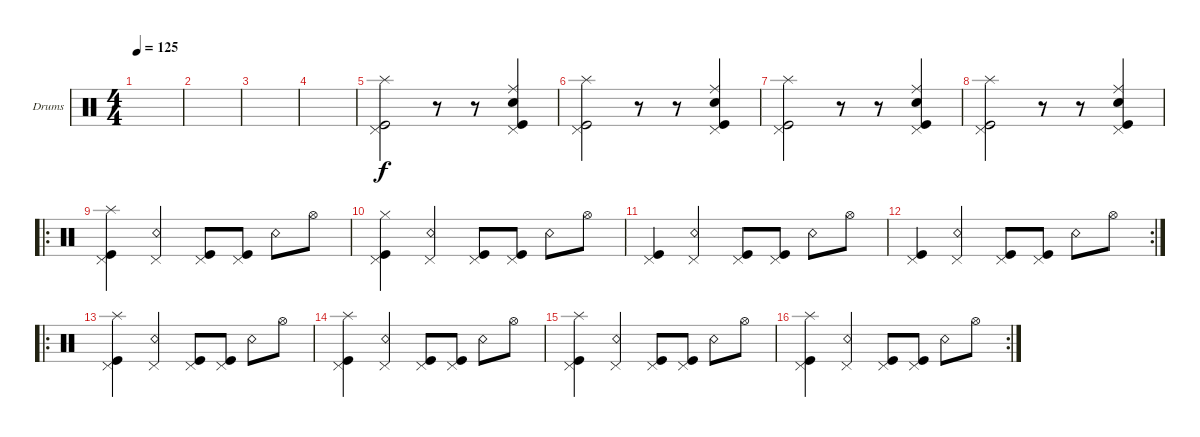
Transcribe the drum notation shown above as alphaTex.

\defaultSystemsLayout 4
\bracketExtendMode groupsimilarinstruments
\firstSystemTrackNameOrientation horizontal
\otherSystemsTrackNameOrientation horizontal
\track ("Drumkit" "Drums") {instrument percussion}
\staff {score}
\articulation defaults
\ts (4 4)
\tempo 125
\clef neutral
\scale
0.474178
\ks c
|
\scale
0.262911 |
\scale
0.262911 |
\scale
0.333333 |
\scale
0.333333 ("Splash (hit)" "Pedal Hi-Hat (hit)" "Kick (hit)").2 r.8 r.8 ("Kick (hit)" "Pedal Hi-Hat (hit)" "Ride (middle)" "Snare (hit) 2").4 |
\scale
0.333333 ("Splash (hit)" "Pedal Hi-Hat (hit)" "Kick (hit)").2 r.8 r.8 ("Kick (hit)" "Pedal Hi-Hat (hit)" "Ride (middle)" "Snare (hit) 2").4 |
\scale
0.333333 ("Splash (hit)" "Pedal Hi-Hat (hit)" "Kick (hit)").2 r.8 r.8 ("Kick (hit)" "Pedal Hi-Hat (hit)" "Ride (middle)" "Snare (hit) 2").4 |
\scale
0.333333 ("Splash (hit)" "Pedal Hi-Hat (hit)" "Kick (hit)").2 r.8 r.8 ("Kick (hit)" "Pedal Hi-Hat (hit)" "Ride (middle)" "Snare (hit) 2").4 |
\ro
\scale
0.333333 ("Splash (hit)" "Pedal Hi-Hat (hit)" "Kick (hit)").4 ("Snare (rim shot)" "Pedal Hi-Hat (hit)").4 ("Kick (hit)" "Pedal Hi-Hat (hit)").8 ("Kick (hit)" "Pedal Hi-Hat (hit)").8 "Snare (rim shot)".8 "Hi-Hat (open)".8 |
\scale
0.333333 ("Pedal Hi-Hat (hit)" "Kick (hit)" "Hi-Hat (closed)").4 ("Snare (rim shot)" "Pedal Hi-Hat (hit)").4 ("Kick (hit)" "Pedal Hi-Hat (hit)").8 ("Kick (hit)" "Pedal Hi-Hat (hit)").8 "Snare (rim shot)".8 "Hi-Hat (open)".8 |
\scale
0.333333 ("Pedal Hi-Hat (hit)" "Kick (hit)").4 ("Snare (rim shot)" "Pedal Hi-Hat (hit)").4 ("Kick (hit)" "Pedal Hi-Hat (hit)").8 ("Kick (hit)" "Pedal Hi-Hat (hit)").8 "Snare (rim shot)".8 "Hi-Hat (open)".8 |
\rc 2
\scale
0.333333 ("Pedal Hi-Hat (hit)" "Kick (hit)").4 ("Snare (rim shot)" "Pedal Hi-Hat (hit)").4 ("Kick (hit)" "Pedal Hi-Hat (hit)").8 ("Kick (hit)" "Pedal Hi-Hat (hit)").8 "Snare (rim shot)".8 "Hi-Hat (open)".8 |
\ro
\scale
0.333333 ("Splash (hit)" "Pedal Hi-Hat (hit)" "Kick (hit)").4 ("Snare (rim shot)" "Pedal Hi-Hat (hit)").4 ("Kick (hit)" "Pedal Hi-Hat (hit)").8 ("Kick (hit)" "Pedal Hi-Hat (hit)").8 "Snare (rim shot)".8 "Hi-Hat (open)".8 |
\scale
0.333333 ("Splash (hit)" "Pedal Hi-Hat (hit)" "Kick (hit)").4 ("Snare (rim shot)" "Pedal Hi-Hat (hit)").4 ("Kick (hit)" "Pedal Hi-Hat (hit)").8 ("Kick (hit)" "Pedal Hi-Hat (hit)").8 "Snare (rim shot)".8 "Hi-Hat (open)".8 |
\scale
0.333333 ("Splash (hit)" "Pedal Hi-Hat (hit)" "Kick (hit)").4 ("Snare (rim shot)" "Pedal Hi-Hat (hit)").4 ("Kick (hit)" "Pedal Hi-Hat (hit)").8 ("Kick (hit)" "Pedal Hi-Hat (hit)").8 "Snare (rim shot)".8 "Hi-Hat (open)".8 |
\rc 2
("Splash (hit)" "Pedal Hi-Hat (hit)" "Kick (hit)").4 ("Snare (rim shot)" "Pedal Hi-Hat (hit)").4 ("Kick (hit)" "Pedal Hi-Hat (hit)").8 ("Kick (hit)" "Pedal Hi-Hat (hit)").8 "Snare (rim shot)".8 "Hi-Hat (open)".8
